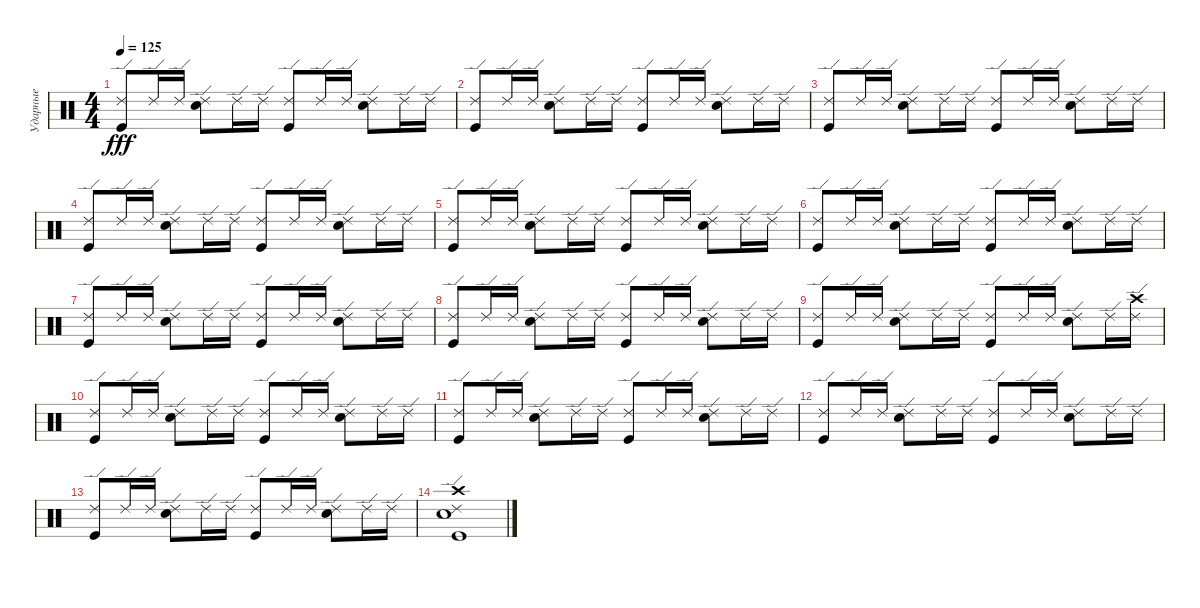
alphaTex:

\track ("Ударные" "Ударные") {instrument percussion}
\staff {score}
\articulation defaults
\ts (4 4)
\tempo 125
\clef neutral
\ks c
("Ride (edge) 2" "Kick (hit)").8{dy fff} "Ride (edge) 2".16 "Ride (edge) 2".16 ("Ride (edge) 2" "Snare (hit) 2").8 "Ride (edge) 2".16 "Ride (edge) 2".16 ("Ride (edge) 2" "Kick (hit)").8 "Ride (edge) 2".16 "Ride (edge) 2".16 ("Ride (edge) 2" "Snare (hit) 2").8 "Ride (edge) 2".16 "Ride (edge) 2".16 |
("Ride (edge) 2" "Kick (hit)").8 "Ride (edge) 2".16 "Ride (edge) 2".16 ("Ride (edge) 2" "Snare (hit) 2").8 "Ride (edge) 2".16 "Ride (edge) 2".16 ("Ride (edge) 2" "Kick (hit)").8 "Ride (edge) 2".16 "Ride (edge) 2".16 ("Ride (edge) 2" "Snare (hit) 2").8 "Ride (edge) 2".16 "Ride (edge) 2".16 |
("Ride (edge) 2" "Kick (hit)").8 "Ride (edge) 2".16 "Ride (edge) 2".16 ("Ride (edge) 2" "Snare (hit) 2").8 "Ride (edge) 2".16 "Ride (edge) 2".16 ("Ride (edge) 2" "Kick (hit)").8 "Ride (edge) 2".16 "Ride (edge) 2".16 ("Ride (edge) 2" "Snare (hit) 2").8 "Ride (edge) 2".16 "Ride (edge) 2".16 |
("Ride (edge) 2" "Kick (hit)").8 "Ride (edge) 2".16 "Ride (edge) 2".16 ("Ride (edge) 2" "Snare (hit) 2").8 "Ride (edge) 2".16 "Ride (edge) 2".16 ("Ride (edge) 2" "Kick (hit)").8 "Ride (edge) 2".16 "Ride (edge) 2".16 ("Ride (edge) 2" "Snare (hit) 2").8 "Ride (edge) 2".16 "Ride (edge) 2".16 |
("Ride (edge) 2" "Kick (hit)").8 "Ride (edge) 2".16 "Ride (edge) 2".16 ("Ride (edge) 2" "Snare (hit) 2").8 "Ride (edge) 2".16 "Ride (edge) 2".16 ("Ride (edge) 2" "Kick (hit)").8 "Ride (edge) 2".16 "Ride (edge) 2".16 ("Ride (edge) 2" "Snare (hit) 2").8 "Ride (edge) 2".16 "Ride (edge) 2".16 |
("Ride (edge) 2" "Kick (hit)").8 "Ride (edge) 2".16 "Ride (edge) 2".16 ("Ride (edge) 2" "Snare (hit) 2").8 "Ride (edge) 2".16 "Ride (edge) 2".16 ("Ride (edge) 2" "Kick (hit)").8 "Ride (edge) 2".16 "Ride (edge) 2".16 ("Ride (edge) 2" "Snare (hit) 2").8 "Ride (edge) 2".16 "Ride (edge) 2".16 |
("Ride (edge) 2" "Kick (hit)").8 "Ride (edge) 2".16 "Ride (edge) 2".16 ("Ride (edge) 2" "Snare (hit) 2").8 "Ride (edge) 2".16 "Ride (edge) 2".16 ("Ride (edge) 2" "Kick (hit)").8 "Ride (edge) 2".16 "Ride (edge) 2".16 ("Ride (edge) 2" "Snare (hit) 2").8 "Ride (edge) 2".16 "Ride (edge) 2".16 |
("Ride (edge) 2" "Kick (hit)").8 "Ride (edge) 2".16 "Ride (edge) 2".16 ("Ride (edge) 2" "Snare (hit) 2").8 "Ride (edge) 2".16 "Ride (edge) 2".16 ("Ride (edge) 2" "Kick (hit)").8 "Ride (edge) 2".16 "Ride (edge) 2".16 ("Ride (edge) 2" "Snare (hit) 2").8 "Ride (edge) 2".16 "Ride (edge) 2".16 |
("Ride (edge) 2" "Kick (hit)").8 "Ride (edge) 2".16 "Ride (edge) 2".16 ("Ride (edge) 2" "Snare (hit) 2").8 "Ride (edge) 2".16 "Ride (edge) 2".16 ("Ride (edge) 2" "Kick (hit)").8 "Ride (edge) 2".16 "Ride (edge) 2".16 ("Ride (edge) 2" "Snare (hit) 2").8 "Ride (edge) 2".16 ("Ride (edge) 2" "Crash high (hit)").16 |
("Ride (edge) 2" "Kick (hit)").8 "Ride (edge) 2".16 "Ride (edge) 2".16 ("Ride (edge) 2" "Snare (hit) 2").8 "Ride (edge) 2".16 "Ride (edge) 2".16 ("Ride (edge) 2" "Kick (hit)").8 "Ride (edge) 2".16 "Ride (edge) 2".16 ("Ride (edge) 2" "Snare (hit) 2").8 "Ride (edge) 2".16 "Ride (edge) 2".16 |
("Ride (edge) 2" "Kick (hit)").8 "Ride (edge) 2".16 "Ride (edge) 2".16 ("Ride (edge) 2" "Snare (hit) 2").8 "Ride (edge) 2".16 "Ride (edge) 2".16 ("Ride (edge) 2" "Kick (hit)").8 "Ride (edge) 2".16 "Ride (edge) 2".16 ("Ride (edge) 2" "Snare (hit) 2").8 "Ride (edge) 2".16 "Ride (edge) 2".16 |
("Ride (edge) 2" "Kick (hit)").8 "Ride (edge) 2".16 "Ride (edge) 2".16 ("Ride (edge) 2" "Snare (hit) 2").8 "Ride (edge) 2".16 "Ride (edge) 2".16 ("Ride (edge) 2" "Kick (hit)").8 "Ride (edge) 2".16 "Ride (edge) 2".16 ("Ride (edge) 2" "Snare (hit) 2").8 "Ride (edge) 2".16 "Ride (edge) 2".16 |
("Ride (edge) 2" "Kick (hit)").8 "Ride (edge) 2".16 "Ride (edge) 2".16 ("Ride (edge) 2" "Snare (hit) 2").8 "Ride (edge) 2".16 "Ride (edge) 2".16 ("Ride (edge) 2" "Kick (hit)").8 "Ride (edge) 2".16 "Ride (edge) 2".16 ("Ride (edge) 2" "Snare (hit) 2").8 "Ride (edge) 2".16 "Ride (edge) 2".16 |
("Ride (edge) 2" "Snare (hit) 2" "Kick (hit)" "Crash high (hit)").1
